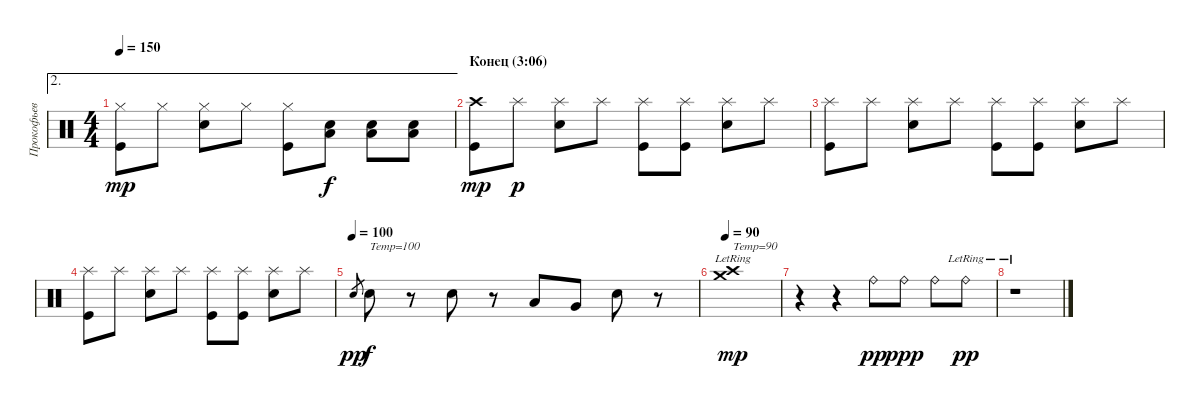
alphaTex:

\track ("Прокофьев (Барабаны)" "Прокофьев ") {instrument percussion}
\staff {score}
\articulation defaults
\ae 2
\ts (4 4)
\tempo 150
\clef neutral
\ks c
("Hi-Hat (closed)" "Kick (hit)").8{dy mp} "Hi-Hat (closed)".8 ("Hi-Hat (closed)" "Electric Snare (hit)").8 "Hi-Hat (closed)".8 ("Hi-Hat (closed)" "Kick (hit)").8 ("Low Tom (hit)" "Electric Snare (hit)").8{dy f} ("Low Tom (hit)" "Electric Snare (hit)").8 ("Low Tom (hit)" "Electric Snare (hit)").8 |
\section ("" "Конец (3:06)")
("Crash high (hit)" "Kick (hit)").8{dy mp} "Splash (hit)".8{dy p} ("Splash (hit)" "Electric Snare (hit)").8 "Splash (hit)".8 ("Splash (hit)" "Kick (hit)").8 ("Splash (hit)" "Kick (hit)").8 ("Splash (hit)" "Electric Snare (hit)").8 "Splash (hit)".8 |
("Splash (hit)" "Kick (hit)").8 "Splash (hit)".8 ("Splash (hit)" "Electric Snare (hit)").8 "Splash (hit)".8 ("Splash (hit)" "Kick (hit)").8 ("Splash (hit)" "Kick (hit)").8 ("Splash (hit)" "Electric Snare (hit)").8 "Splash (hit)".8 |
("Splash (hit)" "Kick (hit)").8 "Splash (hit)".8 ("Splash (hit)" "Electric Snare (hit)").8 "Splash (hit)".8 ("Splash (hit)" "Kick (hit)").8 ("Splash (hit)" "Kick (hit)").8 ("Splash (hit)" "Electric Snare (hit)").8 "Splash (hit)".8 |
\tempo (100)
"Electric Snare (hit)".8{gr dy pp} "Electric Snare (hit)".8{txt "Temp=100" dy f} r.8 "Electric Snare (hit)".8 r.8 "Low Tom (hit)".8 "Very Low Tom (hit)".8 "Electric Snare (hit)".8 r.8 |
\tempo 90
("Crash high (hit)"{lr} "Crash medium (hit)"{lr}).1{txt "Temp=90" dy mp} |
r.4 r.4 "Ride (bell)".8{dy pp} "Ride (bell)".8{dy ppp} "Ride (bell)".8 "Ride (bell)"{lr}.8{dy pp} |
r.1
